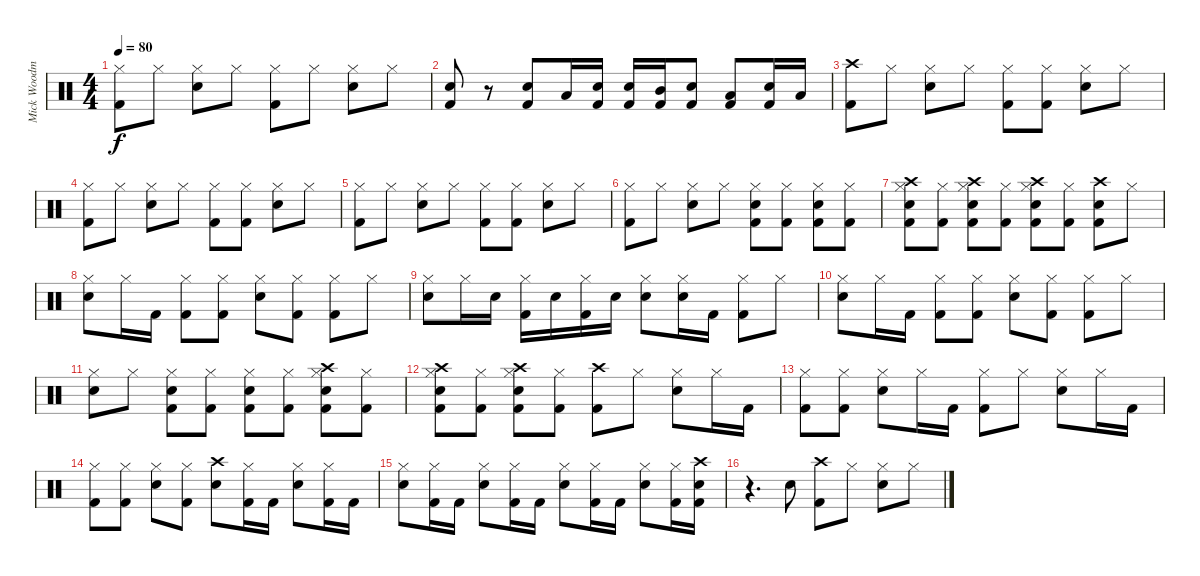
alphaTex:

\track ("Mick Woodmansey" "Mick Woodm") {instrument percussion}
\staff {score}
\articulation defaults
\ts (4 4)
\tempo 80
\clef neutral
\ks c
("Hi-Hat (closed)" "Kick (hit) 2").8{dy f} "Hi-Hat (closed)".8 ("Hi-Hat (closed)" "Snare (hit) 2").8 "Hi-Hat (closed)".8 ("Hi-Hat (closed)" "Kick (hit) 2").8 "Hi-Hat (closed)".8 ("Hi-Hat (closed)" "Snare (hit) 2").8 "Hi-Hat (closed)".8 |
("Snare (hit) 2" "Kick (hit) 2").8 r.8 ("Snare (hit) 2" "Kick (hit) 2").8 "Low Tom (hit)".16 ("Snare (hit) 2" "Kick (hit) 2").16 ("Kick (hit) 2" "Snare (hit) 2").16 ("Kick (hit) 2" "Mid Tom (hit)").16 ("Kick (hit) 2" "Snare (hit) 2").8 ("Kick (hit) 2" "Low Floor Tom (hit)").8 ("Kick (hit) 2" "Snare (hit) 2").16 "Low Tom (hit)".16 |
("Kick (hit) 2" "Crash high (hit)").8 "Hi-Hat (closed)".8 ("Hi-Hat (closed)" "Snare (hit) 2").8 "Hi-Hat (closed)".8 ("Hi-Hat (closed)" "Kick (hit) 2").8 ("Hi-Hat (closed)" "Kick (hit) 2").8 ("Hi-Hat (closed)" "Snare (hit) 2").8 "Hi-Hat (closed)".8 |
("Kick (hit) 2" "Hi-Hat (closed)").8 "Hi-Hat (closed)".8 ("Hi-Hat (closed)" "Snare (hit) 2").8 "Hi-Hat (closed)".8 ("Hi-Hat (closed)" "Kick (hit) 2").8 ("Hi-Hat (closed)" "Kick (hit) 2").8 ("Hi-Hat (closed)" "Snare (hit) 2").8 "Hi-Hat (closed)".8 |
("Kick (hit) 2" "Hi-Hat (closed)").8 "Hi-Hat (closed)".8 ("Hi-Hat (closed)" "Snare (hit) 2").8 "Hi-Hat (closed)".8 ("Hi-Hat (closed)" "Kick (hit) 2").8 ("Hi-Hat (closed)" "Kick (hit) 2").8 ("Hi-Hat (closed)" "Snare (hit) 2").8 "Hi-Hat (closed)".8 |
("Kick (hit) 2" "Hi-Hat (closed)").8 "Hi-Hat (closed)".8 ("Hi-Hat (closed)" "Snare (hit) 2").8 "Hi-Hat (closed)".8 ("Snare (hit) 2" "Hi-Hat (closed)" "Kick (hit) 2").8 ("Kick (hit) 2" "Hi-Hat (closed)").8 ("Kick (hit) 2" "Hi-Hat (closed)" "Snare (hit) 2").8 ("Kick (hit) 2" "Hi-Hat (closed)").8 |
("Crash high (hit)" "Snare (hit) 2" "Kick (hit) 2" "Hi-Hat (closed)").8 ("Kick (hit) 2" "Hi-Hat (closed)").8 ("Crash high (hit)" "Kick (hit) 2" "Hi-Hat (closed)" "Snare (hit) 2").8 ("Kick (hit) 2" "Hi-Hat (closed)").8 ("Crash high (hit)" "Snare (hit) 2" "Hi-Hat (closed)" "Kick (hit) 2").8 ("Hi-Hat (closed)" "Kick (hit) 2").8 ("Snare (hit) 2" "Crash high (hit)" "Kick (hit) 2").8 "Hi-Hat (closed)".8 |
("Hi-Hat (closed)" "Snare (hit) 2").8 "Hi-Hat (closed)".16 "Kick (hit) 2".16 ("Kick (hit) 2" "Hi-Hat (closed)").8 ("Hi-Hat (closed)" "Kick (hit) 2").8 ("Snare (hit) 2" "Hi-Hat (closed)").8 ("Kick (hit) 2" "Hi-Hat (closed)").8 ("Hi-Hat (closed)" "Kick (hit) 2").8 "Hi-Hat (closed)".8 |
("Hi-Hat (closed)" "Snare (hit) 2").8 "Hi-Hat (closed)".16 "Snare (hit) 2".16 ("Kick (hit) 2" "Hi-Hat (closed)").16 "Snare (hit) 2".16 ("Hi-Hat (closed)" "Kick (hit) 2").16 "Snare (hit) 2".16 ("Snare (hit) 2" "Hi-Hat (closed)").8 ("Snare (hit) 2" "Hi-Hat (closed)").16 "Kick (hit) 2".16 ("Kick (hit) 2" "Hi-Hat (closed)").8 "Hi-Hat (closed)".8 |
("Hi-Hat (closed)" "Snare (hit) 2").8 "Hi-Hat (closed)".16 "Kick (hit) 2".16 ("Hi-Hat (closed)" "Kick (hit) 2").8 ("Hi-Hat (closed)" "Kick (hit) 2").8 ("Hi-Hat (closed)" "Snare (hit) 2").8 ("Kick (hit) 2" "Hi-Hat (closed)").8 ("Kick (hit) 2" "Hi-Hat (closed)").8 "Hi-Hat (closed)".8 |
("Hi-Hat (closed)" "Snare (hit) 2").8 "Hi-Hat (closed)".8 ("Snare (hit) 2" "Hi-Hat (closed)" "Kick (hit) 2").8 ("Kick (hit) 2" "Hi-Hat (closed)").8 ("Kick (hit) 2" "Hi-Hat (closed)" "Snare (hit) 2").8 ("Kick (hit) 2" "Hi-Hat (closed)").8 ("Crash high (hit)" "Snare (hit) 2" "Kick (hit) 2" "Hi-Hat (closed)").8 ("Hi-Hat (closed)" "Kick (hit) 2").8 |
("Crash high (hit)" "Kick (hit) 2" "Hi-Hat (closed)" "Snare (hit) 2").8 ("Hi-Hat (closed)" "Kick (hit) 2").8 ("Crash high (hit)" "Snare (hit) 2" "Hi-Hat (closed)" "Kick (hit) 2").8 ("Kick (hit) 2" "Hi-Hat (closed)").8 ("Kick (hit) 2" "Crash high (hit)").8 "Hi-Hat (closed)".8 ("Hi-Hat (closed)" "Snare (hit) 2").8 "Hi-Hat (closed)".16 "Kick (hit) 2".16 |
("Hi-Hat (closed)" "Kick (hit) 2").8 ("Kick (hit) 2" "Hi-Hat (closed)").8 ("Hi-Hat (closed)" "Snare (hit) 2").8 "Hi-Hat (closed)".16 "Kick (hit) 2".16 ("Hi-Hat (closed)" "Kick (hit) 2").8 "Hi-Hat (closed)".8 ("Hi-Hat (closed)" "Snare (hit) 2").8 "Hi-Hat (closed)".16 "Kick (hit) 2".16 |
("Hi-Hat (closed)" "Kick (hit) 2").8 ("Kick (hit) 2" "Hi-Hat (closed)").8 ("Snare (hit) 2" "Hi-Hat (closed)").8 ("Kick (hit) 2" "Hi-Hat (closed)").8 ("Snare (hit) 2" "Crash high (hit)").8 ("Kick (hit) 2" "Hi-Hat (closed)").16 "Kick (hit) 2".16 ("Hi-Hat (closed)" "Snare (hit) 2").8 ("Kick (hit) 2" "Hi-Hat (closed)").16 "Kick (hit) 2".16 |
("Snare (hit) 2" "Hi-Hat (closed)").8 ("Kick (hit) 2" "Hi-Hat (closed)").16 "Kick (hit) 2".16 ("Hi-Hat (closed)" "Snare (hit) 2").8 ("Kick (hit) 2" "Hi-Hat (closed)").16 "Kick (hit) 2".16 ("Hi-Hat (closed)" "Snare (hit) 2").8 ("Kick (hit) 2" "Hi-Hat (closed)").16 "Kick (hit) 2".16 ("Hi-Hat (closed)" "Snare (hit) 2").8 ("Kick (hit) 2" "Hi-Hat (closed)").16 ("Crash high (hit)" "Snare (hit) 2" "Kick (hit) 2").16 |
r.4{d} "Snare (hit) 2".8 ("Crash high (hit)" "Kick (hit) 2").8 "Hi-Hat (closed)".8 ("Hi-Hat (closed)" "Snare (hit) 2").8 "Hi-Hat (closed)".8
